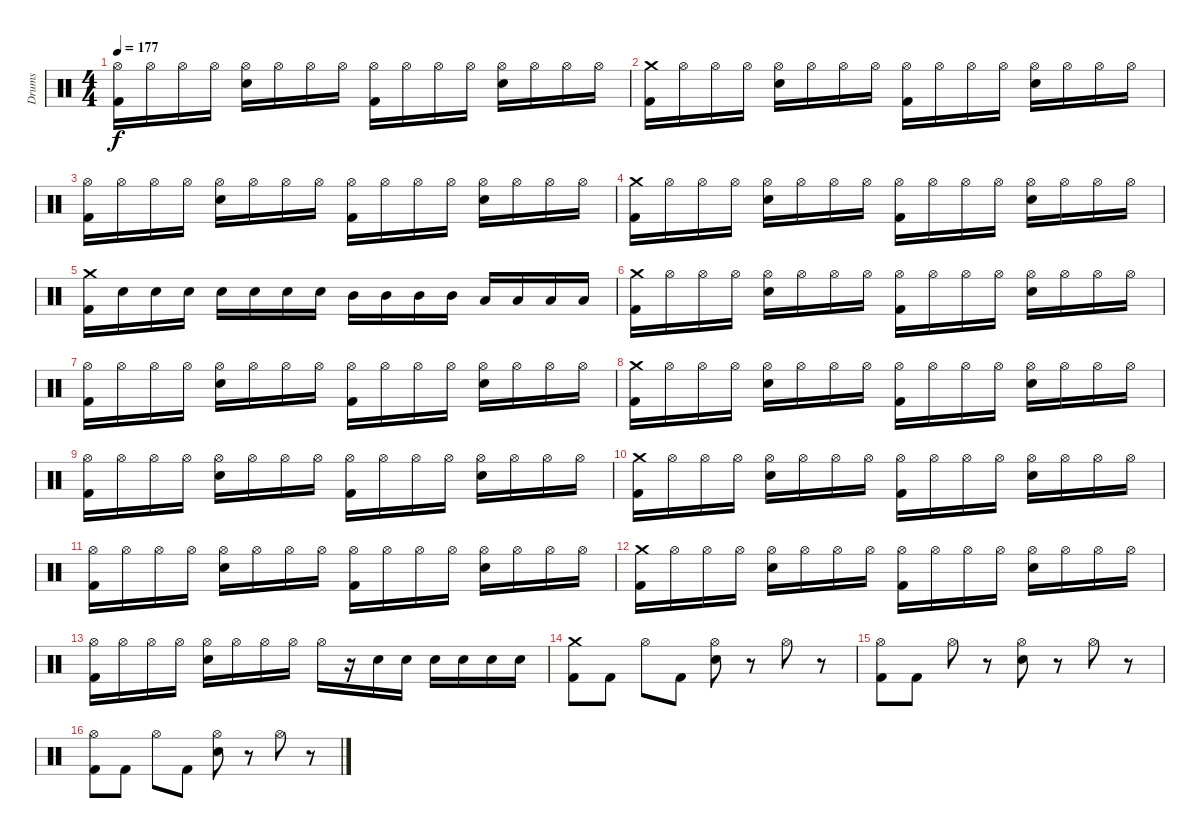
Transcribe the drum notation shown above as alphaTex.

\track ("Drums" "Drums") {solo instrument percussion}
\staff {score}
\articulation defaults
\ts (4 4)
\tempo 177
\clef neutral
\ks c
("Hi-Hat (open)" "Kick (hit) 2").16{dy f} "Hi-Hat (open)".16 "Hi-Hat (open)".16 "Hi-Hat (open)".16 ("Hi-Hat (open)" "Snare (hit) 2").16 "Hi-Hat (open)".16 "Hi-Hat (open)".16 "Hi-Hat (open)".16 ("Hi-Hat (open)" "Kick (hit) 2").16 "Hi-Hat (open)".16 "Hi-Hat (open)".16 "Hi-Hat (open)".16 ("Hi-Hat (open)" "Snare (hit) 2").16 "Hi-Hat (open)".16 "Hi-Hat (open)".16 "Hi-Hat (open)".16 |
("Crash medium (hit)" "Kick (hit) 2").16 "Hi-Hat (open)".16 "Hi-Hat (open)".16 "Hi-Hat (open)".16 ("Hi-Hat (open)" "Snare (hit) 2").16 "Hi-Hat (open)".16 "Hi-Hat (open)".16 "Hi-Hat (open)".16 ("Hi-Hat (open)" "Kick (hit) 2").16 "Hi-Hat (open)".16 "Hi-Hat (open)".16 "Hi-Hat (open)".16 ("Hi-Hat (open)" "Snare (hit) 2").16 "Hi-Hat (open)".16 "Hi-Hat (open)".16 "Hi-Hat (open)".16 |
("Hi-Hat (open)" "Kick (hit) 2").16 "Hi-Hat (open)".16 "Hi-Hat (open)".16 "Hi-Hat (open)".16 ("Hi-Hat (open)" "Snare (hit) 2").16 "Hi-Hat (open)".16 "Hi-Hat (open)".16 "Hi-Hat (open)".16 ("Hi-Hat (open)" "Kick (hit) 2").16 "Hi-Hat (open)".16 "Hi-Hat (open)".16 "Hi-Hat (open)".16 ("Hi-Hat (open)" "Snare (hit) 2").16 "Hi-Hat (open)".16 "Hi-Hat (open)".16 "Hi-Hat (open)".16 |
("Crash medium (hit)" "Kick (hit) 2").16 "Hi-Hat (open)".16 "Hi-Hat (open)".16 "Hi-Hat (open)".16 ("Hi-Hat (open)" "Snare (hit) 2").16 "Hi-Hat (open)".16 "Hi-Hat (open)".16 "Hi-Hat (open)".16 ("Hi-Hat (open)" "Kick (hit) 2").16 "Hi-Hat (open)".16 "Hi-Hat (open)".16 "Hi-Hat (open)".16 ("Hi-Hat (open)" "Snare (hit) 2").16 "Hi-Hat (open)".16 "Hi-Hat (open)".16 "Hi-Hat (open)".16 |
("Crash medium (hit)" "Kick (hit) 2").16 "Snare (hit) 2".16 "Snare (hit) 2".16 "Snare (hit) 2".16 "Snare (hit) 2".16 "Snare (hit) 2".16 "Snare (hit) 2".16 "Snare (hit) 2".16 "Mid Tom (hit)".16 "Mid Tom (hit)".16 "Mid Tom (hit)".16 "Mid Tom (hit)".16 "Low Tom (hit)".16 "Low Tom (hit)".16 "Low Tom (hit)".16 "Low Tom (hit)".16 |
("Crash medium (hit)" "Kick (hit) 2").16 "Hi-Hat (open)".16 "Hi-Hat (open)".16 "Hi-Hat (open)".16 ("Hi-Hat (open)" "Snare (hit) 2").16 "Hi-Hat (open)".16 "Hi-Hat (open)".16 "Hi-Hat (open)".16 ("Hi-Hat (open)" "Kick (hit) 2").16 "Hi-Hat (open)".16 "Hi-Hat (open)".16 "Hi-Hat (open)".16 ("Hi-Hat (open)" "Snare (hit) 2").16 "Hi-Hat (open)".16 "Hi-Hat (open)".16 "Hi-Hat (open)".16 |
("Hi-Hat (open)" "Kick (hit) 2").16 "Hi-Hat (open)".16 "Hi-Hat (open)".16 "Hi-Hat (open)".16 ("Hi-Hat (open)" "Snare (hit) 2").16 "Hi-Hat (open)".16 "Hi-Hat (open)".16 "Hi-Hat (open)".16 ("Hi-Hat (open)" "Kick (hit) 2").16 "Hi-Hat (open)".16 "Hi-Hat (open)".16 "Hi-Hat (open)".16 ("Hi-Hat (open)" "Snare (hit) 2").16 "Hi-Hat (open)".16 "Hi-Hat (open)".16 "Hi-Hat (open)".16 |
("Crash medium (hit)" "Kick (hit) 2").16 "Hi-Hat (open)".16 "Hi-Hat (open)".16 "Hi-Hat (open)".16 ("Hi-Hat (open)" "Snare (hit) 2").16 "Hi-Hat (open)".16 "Hi-Hat (open)".16 "Hi-Hat (open)".16 ("Hi-Hat (open)" "Kick (hit) 2").16 "Hi-Hat (open)".16 "Hi-Hat (open)".16 "Hi-Hat (open)".16 ("Hi-Hat (open)" "Snare (hit) 2").16 "Hi-Hat (open)".16 "Hi-Hat (open)".16 "Hi-Hat (open)".16 |
("Hi-Hat (open)" "Kick (hit) 2").16 "Hi-Hat (open)".16 "Hi-Hat (open)".16 "Hi-Hat (open)".16 ("Hi-Hat (open)" "Snare (hit) 2").16 "Hi-Hat (open)".16 "Hi-Hat (open)".16 "Hi-Hat (open)".16 ("Hi-Hat (open)" "Kick (hit) 2").16 "Hi-Hat (open)".16 "Hi-Hat (open)".16 "Hi-Hat (open)".16 ("Hi-Hat (open)" "Snare (hit) 2").16 "Hi-Hat (open)".16 "Hi-Hat (open)".16 "Hi-Hat (open)".16 |
("Crash medium (hit)" "Kick (hit) 2").16 "Hi-Hat (open)".16 "Hi-Hat (open)".16 "Hi-Hat (open)".16 ("Hi-Hat (open)" "Snare (hit) 2").16 "Hi-Hat (open)".16 "Hi-Hat (open)".16 "Hi-Hat (open)".16 ("Hi-Hat (open)" "Kick (hit) 2").16 "Hi-Hat (open)".16 "Hi-Hat (open)".16 "Hi-Hat (open)".16 ("Hi-Hat (open)" "Snare (hit) 2").16 "Hi-Hat (open)".16 "Hi-Hat (open)".16 "Hi-Hat (open)".16 |
("Hi-Hat (open)" "Kick (hit) 2").16 "Hi-Hat (open)".16 "Hi-Hat (open)".16 "Hi-Hat (open)".16 ("Hi-Hat (open)" "Snare (hit) 2").16 "Hi-Hat (open)".16 "Hi-Hat (open)".16 "Hi-Hat (open)".16 ("Hi-Hat (open)" "Kick (hit) 2").16 "Hi-Hat (open)".16 "Hi-Hat (open)".16 "Hi-Hat (open)".16 ("Hi-Hat (open)" "Snare (hit) 2").16 "Hi-Hat (open)".16 "Hi-Hat (open)".16 "Hi-Hat (open)".16 |
("Crash medium (hit)" "Kick (hit) 2").16 "Hi-Hat (open)".16 "Hi-Hat (open)".16 "Hi-Hat (open)".16 ("Hi-Hat (open)" "Snare (hit) 2").16 "Hi-Hat (open)".16 "Hi-Hat (open)".16 "Hi-Hat (open)".16 ("Hi-Hat (open)" "Kick (hit) 2").16 "Hi-Hat (open)".16 "Hi-Hat (open)".16 "Hi-Hat (open)".16 ("Hi-Hat (open)" "Snare (hit) 2").16 "Hi-Hat (open)".16 "Hi-Hat (open)".16 "Hi-Hat (open)".16 |
("Hi-Hat (open)" "Kick (hit) 2").16 "Hi-Hat (open)".16 "Hi-Hat (open)".16 "Hi-Hat (open)".16 ("Hi-Hat (open)" "Snare (hit) 2").16 "Hi-Hat (open)".16 "Hi-Hat (open)".16 "Hi-Hat (open)".16 "Hi-Hat (open)".16 r.16 "Snare (hit) 2".16 "Snare (hit) 2".16 "Snare (hit) 2".16 "Snare (hit) 2".16 "Snare (hit) 2".16 "Snare (hit) 2".16 |
("Crash medium (hit)" "Kick (hit) 2").8 "Kick (hit) 2".8 "Hi-Hat (open)".8 "Kick (hit) 2".8 ("Hi-Hat (open)" "Snare (hit) 2").8 r.8 "Hi-Hat (open)".8 r.8 |
("Hi-Hat (open)" "Kick (hit) 2").8 "Kick (hit) 2".8 "Hi-Hat (open)".8 r.8 ("Hi-Hat (open)" "Snare (hit) 2").8 r.8 "Hi-Hat (open)".8 r.8 |
("Hi-Hat (open)" "Kick (hit) 2").8 "Kick (hit) 2".8 "Hi-Hat (open)".8 "Kick (hit) 2".8 ("Hi-Hat (open)" "Snare (hit) 2").8 r.8 "Hi-Hat (open)".8 r.8
